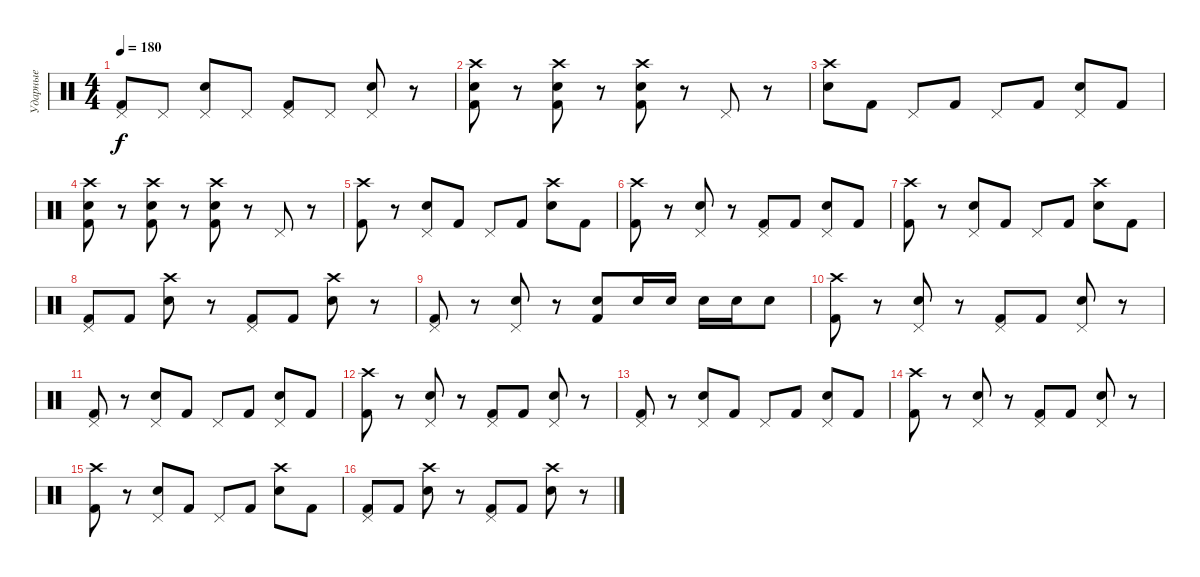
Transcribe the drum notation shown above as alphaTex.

\track ("Ударные" "Ударные") {instrument percussion}
\staff {score}
\articulation defaults
\ts (4 4)
\tempo 180
\clef neutral
\ks c
("Pedal Hi-Hat (hit)" "Kick (hit) 2").8{dy f} "Pedal Hi-Hat (hit)".8 ("Pedal Hi-Hat (hit)" "Electric Snare (hit)").8 "Pedal Hi-Hat (hit)".8 ("Pedal Hi-Hat (hit)" "Kick (hit) 2").8 "Pedal Hi-Hat (hit)".8 ("Pedal Hi-Hat (hit)" "Electric Snare (hit)").8 r.8 |
("Crash high (hit)" "Electric Snare (hit)" "Kick (hit) 2").8 r.8 ("Crash high (hit)" "Electric Snare (hit)" "Kick (hit) 2").8 r.8 ("Crash high (hit)" "Electric Snare (hit)" "Kick (hit) 2").8 r.8 "Pedal Hi-Hat (hit)".8 r.8 |
("Crash high (hit)" "Electric Snare (hit)").8 "Kick (hit) 2".8 "Pedal Hi-Hat (hit)".8 "Kick (hit) 2".8 "Pedal Hi-Hat (hit)".8 "Kick (hit) 2".8 ("Pedal Hi-Hat (hit)" "Electric Snare (hit)").8 "Kick (hit) 2".8 |
("Crash high (hit)" "Electric Snare (hit)" "Kick (hit) 2").8 r.8 ("Crash high (hit)" "Electric Snare (hit)" "Kick (hit) 2").8 r.8 ("Crash high (hit)" "Electric Snare (hit)" "Kick (hit) 2").8 r.8 "Pedal Hi-Hat (hit)".8 r.8 |
("Crash high (hit)" "Kick (hit) 2").8 r.8 ("Pedal Hi-Hat (hit)" "Electric Snare (hit)").8 "Kick (hit) 2".8 "Pedal Hi-Hat (hit)".8 "Kick (hit) 2".8 ("Crash high (hit)" "Electric Snare (hit)").8 "Kick (hit) 2".8 |
("Crash high (hit)" "Kick (hit) 2").8 r.8 ("Pedal Hi-Hat (hit)" "Electric Snare (hit)").8 r.8 ("Pedal Hi-Hat (hit)" "Kick (hit) 2").8 "Kick (hit) 2".8 ("Pedal Hi-Hat (hit)" "Electric Snare (hit)").8 "Kick (hit) 2".8 |
("Crash high (hit)" "Kick (hit) 2").8 r.8 ("Pedal Hi-Hat (hit)" "Electric Snare (hit)").8 "Kick (hit) 2".8 "Pedal Hi-Hat (hit)".8 "Kick (hit) 2".8 ("Crash high (hit)" "Electric Snare (hit)").8 "Kick (hit) 2".8 |
("Pedal Hi-Hat (hit)" "Kick (hit) 2").8 "Kick (hit) 2".8 ("Crash high (hit)" "Electric Snare (hit)").8 r.8 ("Pedal Hi-Hat (hit)" "Kick (hit) 2").8 "Kick (hit) 2".8 ("Crash high (hit)" "Electric Snare (hit)").8 r.8 |
("Pedal Hi-Hat (hit)" "Kick (hit) 2").8 r.8 ("Pedal Hi-Hat (hit)" "Electric Snare (hit)").8 r.8 ("Electric Snare (hit)" "Kick (hit) 2").8 "Electric Snare (hit)".16 "Electric Snare (hit)".16 "Electric Snare (hit)".16 "Electric Snare (hit)".16 "Electric Snare (hit)".8 |
("Crash high (hit)" "Kick (hit) 2").8 r.8 ("Pedal Hi-Hat (hit)" "Electric Snare (hit)").8 r.8 ("Pedal Hi-Hat (hit)" "Kick (hit) 2").8 "Kick (hit) 2".8 ("Pedal Hi-Hat (hit)" "Electric Snare (hit)").8 r.8 |
("Pedal Hi-Hat (hit)" "Kick (hit) 2").8 r.8 ("Pedal Hi-Hat (hit)" "Electric Snare (hit)").8 "Kick (hit) 2".8 "Pedal Hi-Hat (hit)".8 "Kick (hit) 2".8 ("Pedal Hi-Hat (hit)" "Electric Snare (hit)").8 "Kick (hit) 2".8 |
("Crash high (hit)" "Kick (hit) 2").8 r.8 ("Pedal Hi-Hat (hit)" "Electric Snare (hit)").8 r.8 ("Pedal Hi-Hat (hit)" "Kick (hit) 2").8 "Kick (hit) 2".8 ("Pedal Hi-Hat (hit)" "Electric Snare (hit)").8 r.8 |
("Pedal Hi-Hat (hit)" "Kick (hit) 2").8 r.8 ("Pedal Hi-Hat (hit)" "Electric Snare (hit)").8 "Kick (hit) 2".8 "Pedal Hi-Hat (hit)".8 "Kick (hit) 2".8 ("Pedal Hi-Hat (hit)" "Electric Snare (hit)").8 "Kick (hit) 2".8 |
("Crash high (hit)" "Kick (hit) 2").8 r.8 ("Pedal Hi-Hat (hit)" "Electric Snare (hit)").8 r.8 ("Pedal Hi-Hat (hit)" "Kick (hit) 2").8 "Kick (hit) 2".8 ("Pedal Hi-Hat (hit)" "Electric Snare (hit)").8 r.8 |
("Crash high (hit)" "Kick (hit) 2").8 r.8 ("Pedal Hi-Hat (hit)" "Electric Snare (hit)").8 "Kick (hit) 2".8 "Pedal Hi-Hat (hit)".8 "Kick (hit) 2".8 ("Crash high (hit)" "Electric Snare (hit)").8 "Kick (hit) 2".8 |
("Pedal Hi-Hat (hit)" "Kick (hit) 2").8 "Kick (hit) 2".8 ("Crash high (hit)" "Electric Snare (hit)").8 r.8 ("Pedal Hi-Hat (hit)" "Kick (hit) 2").8 "Kick (hit) 2".8 ("Crash high (hit)" "Electric Snare (hit)").8 r.8
